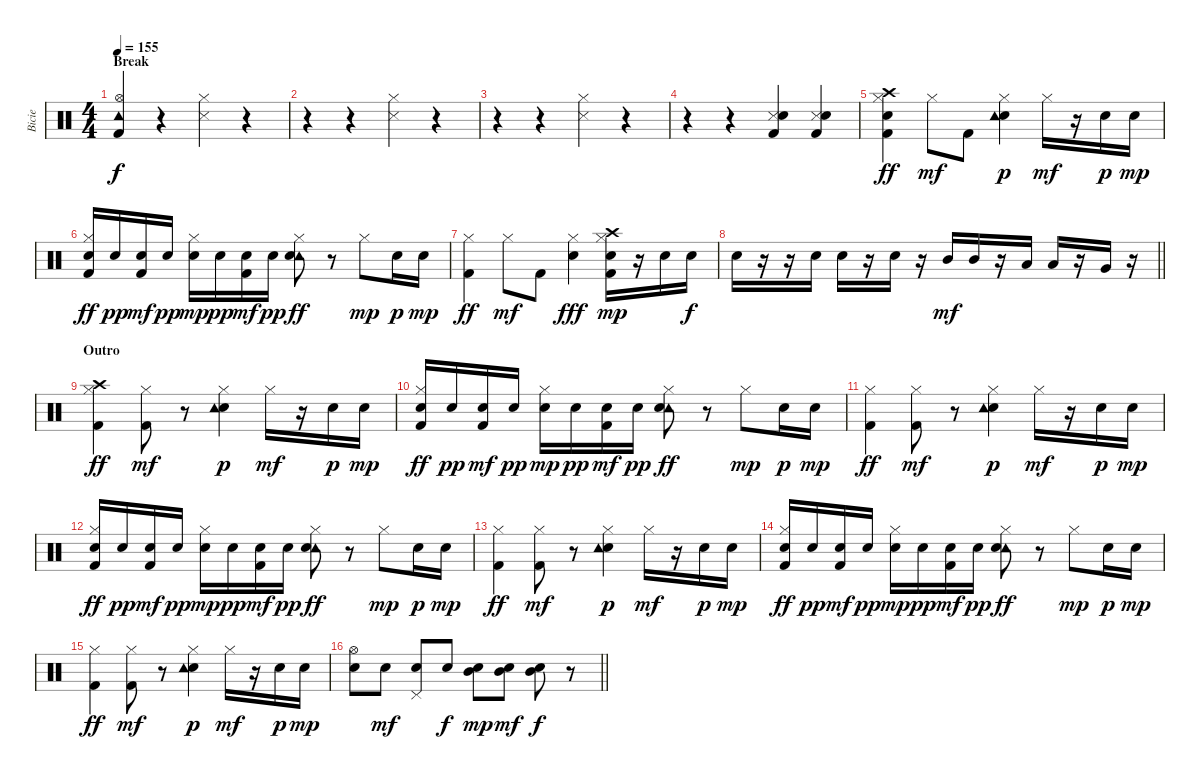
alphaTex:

\track ("Bicie" "Bicie") {instrument percussion}
\staff {score}
\articulation defaults
\ts (4 4)
\section ("" "Break")
\tempo 155
\clef neutral
\ks c
("Tambourine (hit)" "Hi-Hat (open)" "Kick (hit) 2").4{dy f} r.4 ("Snare (side stick) 3" "Hi-Hat (closed)").4 r.4 |
r.4 r.4 ("Snare (side stick) 3" "Hi-Hat (closed)").4 r.4 |
r.4 r.4 ("Snare (side stick) 3" "Hi-Hat (closed)").4 r.4 |
r.4 r.4 ("Kick (hit) 2" "Snare (side stick) 3" "Snare (hit) 2").4 ("Kick (hit) 2" "Snare (side stick) 3" "Snare (hit) 2").4 |
("Hi-Hat (closed)" "Electric Snare (hit)" "Crash high (hit)" "Kick (hit) 2").4{dy ff} "Hi-Hat (closed)".8{dy mf} "Kick (hit) 2".8 ("Hi-Hat (closed)" "Electric Snare (hit)" "Tambourine (hit)").4{dy p} "Hi-Hat (closed)".16{dy mf} r.16 "Electric Snare (hit)".16{dy p} "Electric Snare (hit)".16{dy mp} |
("Hi-Hat (closed)" "Electric Snare (hit)" "Kick (hit) 2").16{dy ff} "Electric Snare (hit)".16{dy pp} ("Electric Snare (hit)" "Kick (hit) 2").16{dy mf} "Electric Snare (hit)".16{dy pp} ("Hi-Hat (closed)" "Electric Snare (hit)").16{dy mp} "Electric Snare (hit)".16{dy pp} ("Electric Snare (hit)" "Kick (hit) 2").16{dy mf} "Electric Snare (hit)".16{dy pp} ("Hi-Hat (closed)" "Tambourine (hit)" "Electric Snare (hit)").8{dy ff} r.8 "Hi-Hat (closed)".8{dy mp} "Electric Snare (hit)".16{dy p} "Electric Snare (hit)".16{dy mp} |
("Hi-Hat (closed)" "Kick (hit) 2").4{dy ff} "Hi-Hat (closed)".8{dy mf} "Kick (hit) 2".8 ("Hi-Hat (closed)" "Electric Snare (hit)").4{dy fff} ("Hi-Hat (closed)" "Electric Snare (hit)" "Kick (hit) 2" "Crash high (hit)").16{dy mp} r.16 "Electric Snare (hit)".16 "Electric Snare (hit)".16{dy f} |
\barLineRight lightlight "Electric Snare (hit)".16
r.16 r.16 "Electric Snare (hit)".16 "Electric Snare (hit)".16 r.16 "Electric Snare (hit)".16 r.16 "Mid Tom (hit)".16{dy mf} "Mid Tom (hit)".16 r.16 "Low Tom (hit)".16 "Low Tom (hit)".16 r.16 "Very Low Tom (hit)".16 r.16 |
\section ("" "Outro")
("Hi-Hat (closed)" "Crash high (hit)" "Kick (hit) 2").4{dy ff} ("Hi-Hat (closed)" "Kick (hit) 2").8{dy mf} r.8 ("Hi-Hat (closed)" "Electric Snare (hit)" "Tambourine (hit)").4{dy p} "Hi-Hat (closed)".16{dy mf} r.16 "Electric Snare (hit)".16{dy p} "Electric Snare (hit)".16{dy mp} |
("Hi-Hat (closed)" "Electric Snare (hit)" "Kick (hit) 2").16{dy ff} "Electric Snare (hit)".16{dy pp} ("Electric Snare (hit)" "Kick (hit) 2").16{dy mf} "Electric Snare (hit)".16{dy pp} ("Hi-Hat (closed)" "Electric Snare (hit)").16{dy mp} "Electric Snare (hit)".16{dy pp} ("Electric Snare (hit)" "Kick (hit) 2").16{dy mf} "Electric Snare (hit)".16{dy pp} ("Hi-Hat (closed)" "Tambourine (hit)" "Electric Snare (hit)").8{dy ff} r.8 "Hi-Hat (closed)".8{dy mp} "Electric Snare (hit)".16{dy p} "Electric Snare (hit)".16{dy mp} |
("Hi-Hat (closed)" "Kick (hit) 2").4{dy ff} ("Hi-Hat (closed)" "Kick (hit) 2").8{dy mf} r.8 ("Hi-Hat (closed)" "Electric Snare (hit)" "Tambourine (hit)").4{dy p} "Hi-Hat (closed)".16{dy mf} r.16 "Electric Snare (hit)".16{dy p} "Electric Snare (hit)".16{dy mp} |
("Hi-Hat (closed)" "Electric Snare (hit)" "Kick (hit) 2").16{dy ff} "Electric Snare (hit)".16{dy pp} ("Electric Snare (hit)" "Kick (hit) 2").16{dy mf} "Electric Snare (hit)".16{dy pp} ("Hi-Hat (closed)" "Electric Snare (hit)").16{dy mp} "Electric Snare (hit)".16{dy pp} ("Electric Snare (hit)" "Kick (hit) 2").16{dy mf} "Electric Snare (hit)".16{dy pp} ("Hi-Hat (closed)" "Tambourine (hit)" "Electric Snare (hit)").8{dy ff} r.8 "Hi-Hat (closed)".8{dy mp} "Electric Snare (hit)".16{dy p} "Electric Snare (hit)".16{dy mp} |
("Hi-Hat (closed)" "Kick (hit) 2").4{dy ff} ("Hi-Hat (closed)" "Kick (hit) 2").8{dy mf} r.8 ("Hi-Hat (closed)" "Electric Snare (hit)" "Tambourine (hit)").4{dy p} "Hi-Hat (closed)".16{dy mf} r.16 "Electric Snare (hit)".16{dy p} "Electric Snare (hit)".16{dy mp} |
("Hi-Hat (closed)" "Electric Snare (hit)" "Kick (hit) 2").16{dy ff} "Electric Snare (hit)".16{dy pp} ("Electric Snare (hit)" "Kick (hit) 2").16{dy mf} "Electric Snare (hit)".16{dy pp} ("Hi-Hat (closed)" "Electric Snare (hit)").16{dy mp} "Electric Snare (hit)".16{dy pp} ("Electric Snare (hit)" "Kick (hit) 2").16{dy mf} "Electric Snare (hit)".16{dy pp} ("Hi-Hat (closed)" "Tambourine (hit)" "Electric Snare (hit)").8{dy ff} r.8 "Hi-Hat (closed)".8{dy mp} "Electric Snare (hit)".16{dy p} "Electric Snare (hit)".16{dy mp} |
("Hi-Hat (closed)" "Kick (hit) 2").4{dy ff} ("Hi-Hat (closed)" "Kick (hit) 2").8{dy mf} r.8 ("Hi-Hat (closed)" "Electric Snare (hit)" "Tambourine (hit)").4{dy p} "Hi-Hat (closed)".16{dy mf} r.16 "Electric Snare (hit)".16{dy p} "Electric Snare (hit)".16{dy mp} |
\barLineRight lightlight
("Electric Snare (hit)" "Hi-Hat (open)").8 "Electric Snare (hit)".8{dy mf} ("Electric Snare (hit)" "Pedal Hi-Hat (hit)").8 "Electric Snare (hit)".8{dy f} ("Mid Tom (hit)" "Electric Snare (hit)").8{dy mp} ("Mid Tom (hit)" "Electric Snare (hit)").8{dy mf} ("Mid Tom (hit)" "Electric Snare (hit)").8{dy f} r.8
